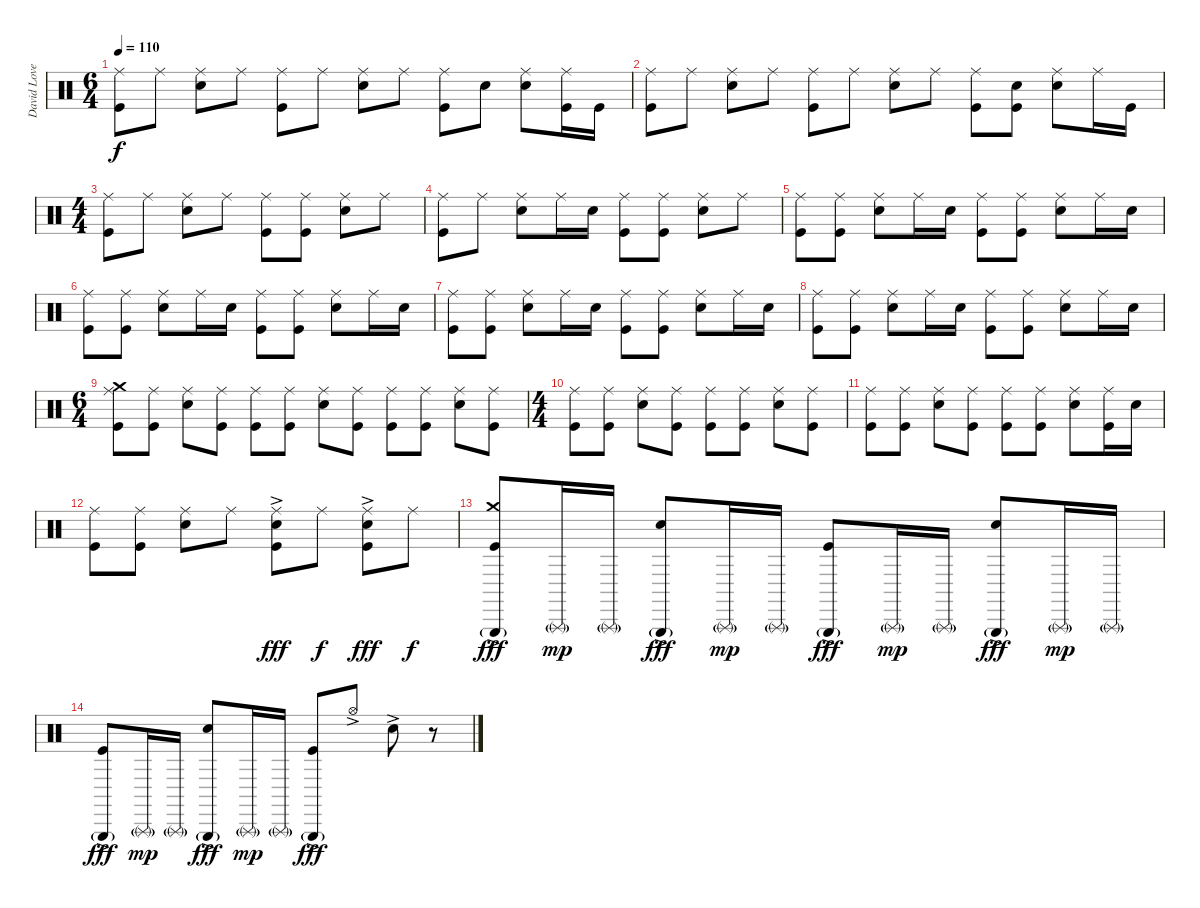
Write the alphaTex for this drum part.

\track ("David Lovering" "David Love") {instrument percussion}
\staff {score}
\articulation defaults
\ts (6 4)
\section ("" "")
\tempo 110
\clef neutral
\ks c
("Ride (middle)" "Kick (hit)").8{dy f} "Ride (middle)".8 ("Ride (middle)" "Snare (hit) 2").8 "Ride (middle)".8 ("Ride (middle)" "Kick (hit)").8 "Ride (middle)".8 ("Ride (middle)" "Snare (hit) 2").8 "Ride (middle)".8 ("Ride (middle)" "Kick (hit)").8 "Snare (hit)".8 ("Ride (middle)" "Snare (hit) 2").8 ("Ride (middle)" "Kick (hit)").16 "Kick (hit)".16 |
("Ride (middle)" "Kick (hit)").8 "Ride (middle)".8 ("Ride (middle)" "Snare (hit) 2").8 "Ride (middle)".8 ("Ride (middle)" "Kick (hit)").8 "Ride (middle)".8 ("Ride (middle)" "Snare (hit) 2").8 "Ride (middle)".8 ("Ride (middle)" "Kick (hit)").8 ("Snare (hit)" "Kick (hit)").8 ("Ride (middle)" "Snare (hit) 2").8 "Ride (middle)".16 "Kick (hit)".16 |
\ts (4 4)
("Ride (middle)" "Kick (hit)").8 "Ride (middle)".8 ("Ride (middle)" "Snare (hit) 2").8 "Ride (middle)".8 ("Ride (middle)" "Kick (hit)").8 ("Ride (middle)" "Kick (hit)").8 ("Ride (middle)" "Snare (hit) 2").8 "Ride (middle)".8 |
("Ride (middle)" "Kick (hit)").8 "Ride (middle)".8 ("Ride (middle)" "Snare (hit) 2").8 "Ride (middle)".16 "Snare (hit) 2".16 ("Ride (middle)" "Kick (hit)").8 ("Ride (middle)" "Kick (hit)").8 ("Ride (middle)" "Snare (hit) 2").8 "Ride (middle)".8 |
("Ride (middle)" "Kick (hit)").8 ("Ride (middle)" "Kick (hit)").8 ("Ride (middle)" "Snare (hit) 2").8 "Ride (middle)".16 "Snare (hit) 2".16 ("Ride (middle)" "Kick (hit)").8 ("Ride (middle)" "Kick (hit)").8 ("Ride (middle)" "Snare (hit) 2").8 "Ride (middle)".16 "Snare (hit) 2".16 |
("Ride (middle)" "Kick (hit)").8 ("Ride (middle)" "Kick (hit)").8 ("Ride (middle)" "Snare (hit) 2").8 "Ride (middle)".16 "Snare (hit) 2".16 ("Ride (middle)" "Kick (hit)").8 ("Ride (middle)" "Kick (hit)").8 ("Ride (middle)" "Snare (hit) 2").8 "Ride (middle)".16 "Snare (hit) 2".16 |
("Ride (middle)" "Kick (hit)").8 ("Ride (middle)" "Kick (hit)").8 ("Ride (middle)" "Snare (hit) 2").8 "Ride (middle)".16 "Snare (hit) 2".16 ("Ride (middle)" "Kick (hit)").8 ("Ride (middle)" "Kick (hit)").8 ("Ride (middle)" "Snare (hit) 2").8 "Ride (middle)".16 "Snare (hit) 2".16 |
("Ride (middle)" "Kick (hit)").8 ("Ride (middle)" "Kick (hit)").8 ("Ride (middle)" "Snare (hit) 2").8 "Ride (middle)".16 "Snare (hit) 2".16 ("Ride (middle)" "Kick (hit)").8 ("Ride (middle)" "Kick (hit)").8 ("Ride (middle)" "Snare (hit) 2").8 "Ride (middle)".16 "Snare (hit) 2".16 |
\ts (6 4)
("Ride (middle)" "Crash medium (hit)" "Kick (hit)").8 ("Ride (middle)" "Kick (hit)").8 ("Ride (middle)" "Snare (hit) 2").8 ("Ride (middle)" "Kick (hit)").8 ("Ride (middle)" "Kick (hit)").8 ("Ride (middle)" "Kick (hit)").8 ("Ride (middle)" "Snare (hit) 2").8 ("Ride (middle)" "Kick (hit)").8 ("Ride (middle)" "Kick (hit)").8 ("Ride (middle)" "Kick (hit)").8 ("Ride (middle)" "Snare (hit) 2").8 ("Ride (middle)" "Kick (hit)").8 |
\ts (4 4)
("Ride (middle)" "Kick (hit)").8 ("Ride (middle)" "Kick (hit)").8 ("Ride (middle)" "Snare (hit) 2").8 ("Ride (middle)" "Kick (hit)").8 ("Ride (middle)" "Kick (hit)").8 ("Ride (middle)" "Kick (hit)").8 ("Ride (middle)" "Snare (hit) 2").8 ("Ride (middle)" "Kick (hit)").8 |
("Ride (middle)" "Kick (hit)").8 ("Ride (middle)" "Kick (hit)").8 ("Ride (middle)" "Snare (hit) 2").8 ("Ride (middle)" "Kick (hit)").8 ("Ride (middle)" "Kick (hit)").8 ("Ride (middle)" "Kick (hit)").8 ("Ride (middle)" "Snare (hit) 2").8 ("Ride (middle)" "Kick (hit)").16 "Snare (hit) 2".16 |
("Ride (middle)" "Kick (hit)").8 ("Ride (middle)" "Kick (hit)").8 ("Ride (middle)" "Snare (hit) 2").8 "Ride (middle)".8 ("Ride (middle)" "Snare (hit) 2"{ac} "Kick (hit)").8{dy fff} "Ride (middle)".8{dy f} ("Ride (middle)" "Snare (hit) 2"{ac} "Kick (hit)").8{dy fff} "Ride (middle)".8{dy f} |
("Triangle (hit)"{g} "Crash medium (hit)" "Kick (hit)"{ac}).8{dy fff} "Triangle (rnute)"{g}.16{dy mp} "Triangle (rnute)"{g}.16 ("Triangle (hit)"{g} "Snare (hit) 2"{ac}).8{dy fff} "Triangle (rnute)"{g}.16{dy mp} "Triangle (rnute)"{g}.16 ("Triangle (hit)"{g} "Kick (hit)"{ac}).8{dy fff} "Triangle (rnute)"{g}.16{dy mp} "Triangle (rnute)"{g}.16 ("Triangle (hit)"{g} "Snare (hit) 2"{ac}).8{dy fff} "Triangle (rnute)"{g}.16{dy mp} "Triangle (rnute)"{g}.16 |
("Triangle (hit)"{g} "Kick (hit)"{ac}).8{dy fff} "Triangle (rnute)"{g}.16{dy mp} "Triangle (rnute)"{g}.16 ("Triangle (hit)"{g} "Snare (hit) 2"{ac}).8{dy fff} "Triangle (rnute)"{g}.16{dy mp} "Triangle (rnute)"{g}.16 ("Triangle (hit)"{g} "Kick (hit)"{ac}).8{dy fff} "Hi-Hat (open)"{ac}.8 "Snare (hit) 2"{ac}.8 r.8
